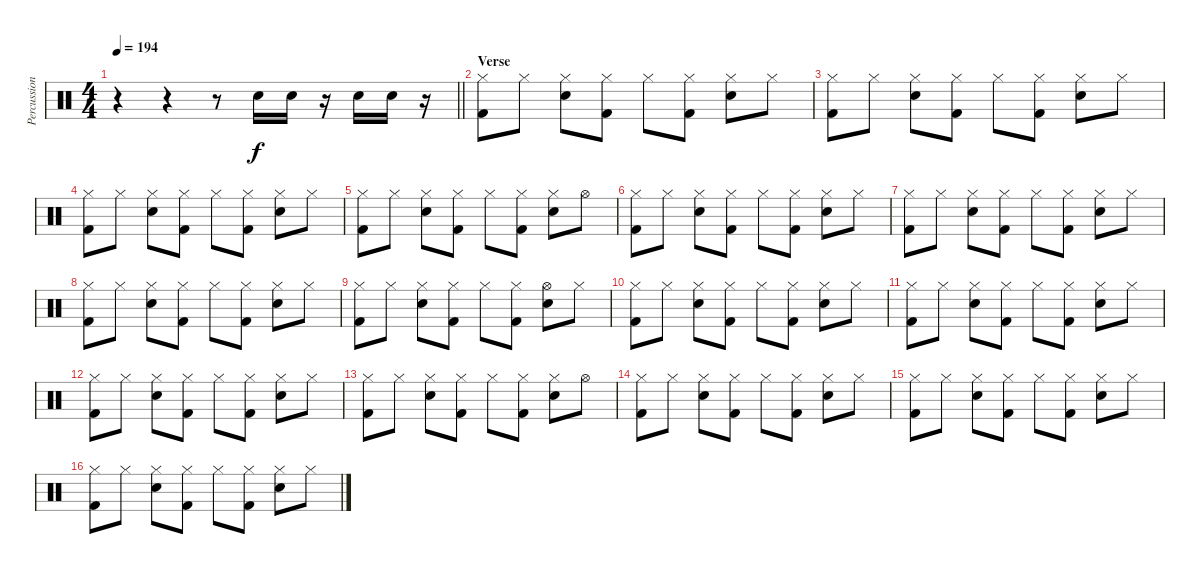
\track ("Percussion" "Percussion") {instrument percussion}
\staff {score}
\articulation defaults
\ts (4 4)
\tempo 194
\clef neutral
\barLineRight lightlight
\ks c
r.4{dy f} r.4 r.8 "Snare (hit) 2".16 "Snare (hit) 2".16 r.16 "Snare (hit) 2".16 "Snare (hit) 2".16 r.16 |
\section ("" "Verse")
("Hi-Hat (closed)" "Kick (hit) 2").8 "Hi-Hat (closed)".8 ("Hi-Hat (closed)" "Snare (hit) 2").8 ("Hi-Hat (closed)" "Kick (hit) 2").8 "Hi-Hat (closed)".8 ("Hi-Hat (closed)" "Kick (hit) 2").8 ("Hi-Hat (closed)" "Snare (hit) 2").8 "Hi-Hat (closed)".8 |
("Hi-Hat (closed)" "Kick (hit) 2").8 "Hi-Hat (closed)".8 ("Hi-Hat (closed)" "Snare (hit) 2").8 ("Hi-Hat (closed)" "Kick (hit) 2").8 "Hi-Hat (closed)".8 ("Hi-Hat (closed)" "Kick (hit) 2").8 ("Hi-Hat (closed)" "Snare (hit) 2").8 "Hi-Hat (closed)".8 |
("Hi-Hat (closed)" "Kick (hit) 2").8 "Hi-Hat (closed)".8 ("Hi-Hat (closed)" "Snare (hit) 2").8 ("Hi-Hat (closed)" "Kick (hit) 2").8 "Hi-Hat (closed)".8 ("Hi-Hat (closed)" "Kick (hit) 2").8 ("Hi-Hat (closed)" "Snare (hit) 2").8 "Hi-Hat (closed)".8 |
("Hi-Hat (closed)" "Kick (hit) 2").8 "Hi-Hat (closed)".8 ("Hi-Hat (closed)" "Snare (hit) 2").8 ("Hi-Hat (closed)" "Kick (hit) 2").8 "Hi-Hat (closed)".8 ("Hi-Hat (closed)" "Kick (hit) 2").8 ("Hi-Hat (closed)" "Snare (hit) 2").8 "Hi-Hat (open)".8 |
("Hi-Hat (closed)" "Kick (hit) 2").8 "Hi-Hat (closed)".8 ("Hi-Hat (closed)" "Snare (hit) 2").8 ("Hi-Hat (closed)" "Kick (hit) 2").8 "Hi-Hat (closed)".8 ("Hi-Hat (closed)" "Kick (hit) 2").8 ("Hi-Hat (closed)" "Snare (hit) 2").8 "Hi-Hat (closed)".8 |
("Hi-Hat (closed)" "Kick (hit) 2").8 "Hi-Hat (closed)".8 ("Hi-Hat (closed)" "Snare (hit) 2").8 ("Hi-Hat (closed)" "Kick (hit) 2").8 "Hi-Hat (closed)".8 ("Hi-Hat (closed)" "Kick (hit) 2").8 ("Hi-Hat (closed)" "Snare (hit) 2").8 "Hi-Hat (closed)".8 |
("Hi-Hat (closed)" "Kick (hit) 2").8 "Hi-Hat (closed)".8 ("Hi-Hat (closed)" "Snare (hit) 2").8 ("Hi-Hat (closed)" "Kick (hit) 2").8 "Hi-Hat (closed)".8 ("Hi-Hat (closed)" "Kick (hit) 2").8 ("Hi-Hat (closed)" "Snare (hit) 2").8 "Hi-Hat (closed)".8 |
("Hi-Hat (closed)" "Kick (hit) 2").8 "Hi-Hat (closed)".8 ("Hi-Hat (closed)" "Snare (hit) 2").8 ("Hi-Hat (closed)" "Kick (hit) 2").8 "Hi-Hat (closed)".8 ("Hi-Hat (closed)" "Kick (hit) 2").8 ("Hi-Hat (open)" "Snare (hit) 2").8 "Hi-Hat (closed)".8 |
("Hi-Hat (closed)" "Kick (hit) 2").8 "Hi-Hat (closed)".8 ("Hi-Hat (closed)" "Snare (hit) 2").8 ("Hi-Hat (closed)" "Kick (hit) 2").8 "Hi-Hat (closed)".8 ("Hi-Hat (closed)" "Kick (hit) 2").8 ("Hi-Hat (closed)" "Snare (hit) 2").8 "Hi-Hat (closed)".8 |
("Hi-Hat (closed)" "Kick (hit) 2").8 "Hi-Hat (closed)".8 ("Hi-Hat (closed)" "Snare (hit) 2").8 ("Hi-Hat (closed)" "Kick (hit) 2").8 "Hi-Hat (closed)".8 ("Hi-Hat (closed)" "Kick (hit) 2").8 ("Hi-Hat (closed)" "Snare (hit) 2").8 "Hi-Hat (closed)".8 |
("Hi-Hat (closed)" "Kick (hit) 2").8 "Hi-Hat (closed)".8 ("Hi-Hat (closed)" "Snare (hit) 2").8 ("Hi-Hat (closed)" "Kick (hit) 2").8 "Hi-Hat (closed)".8 ("Hi-Hat (closed)" "Kick (hit) 2").8 ("Hi-Hat (closed)" "Snare (hit) 2").8 "Hi-Hat (closed)".8 |
("Hi-Hat (closed)" "Kick (hit) 2").8 "Hi-Hat (closed)".8 ("Hi-Hat (closed)" "Snare (hit) 2").8 ("Hi-Hat (closed)" "Kick (hit) 2").8 "Hi-Hat (closed)".8 ("Hi-Hat (closed)" "Kick (hit) 2").8 ("Hi-Hat (closed)" "Snare (hit) 2").8 "Hi-Hat (open)".8 |
("Hi-Hat (closed)" "Kick (hit) 2").8 "Hi-Hat (closed)".8 ("Hi-Hat (closed)" "Snare (hit) 2").8 ("Hi-Hat (closed)" "Kick (hit) 2").8 "Hi-Hat (closed)".8 ("Hi-Hat (closed)" "Kick (hit) 2").8 ("Hi-Hat (closed)" "Snare (hit) 2").8 "Hi-Hat (closed)".8 |
("Hi-Hat (closed)" "Kick (hit) 2").8 "Hi-Hat (closed)".8 ("Hi-Hat (closed)" "Snare (hit) 2").8 ("Hi-Hat (closed)" "Kick (hit) 2").8 "Hi-Hat (closed)".8 ("Hi-Hat (closed)" "Kick (hit) 2").8 ("Hi-Hat (closed)" "Snare (hit) 2").8 "Hi-Hat (closed)".8 |
("Hi-Hat (closed)" "Kick (hit) 2").8 "Hi-Hat (closed)".8 ("Hi-Hat (closed)" "Snare (hit) 2").8 ("Hi-Hat (closed)" "Kick (hit) 2").8 "Hi-Hat (closed)".8 ("Hi-Hat (closed)" "Kick (hit) 2").8 ("Hi-Hat (closed)" "Snare (hit) 2").8 "Hi-Hat (closed)".8
